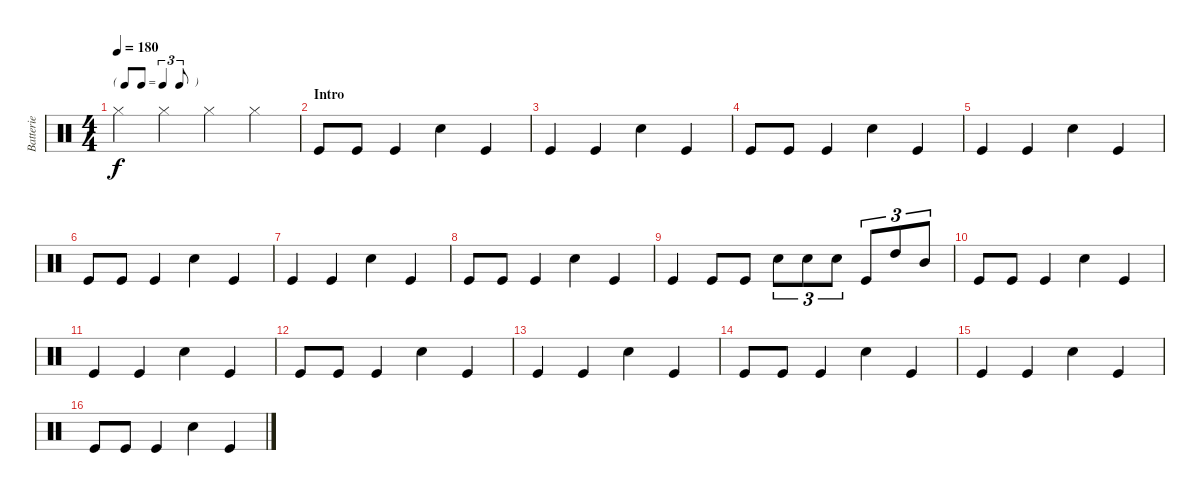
\track ("Batterie" "Batterie") {instrument percussion}
\staff {score}
\articulation defaults
\ts (4 4)
\tf triplet8th
\tempo 180
\clef neutral
\ks c "Hi-Hat (closed)".4{dy f} "Hi-Hat (closed)".4 "Hi-Hat (closed)".4 "Hi-Hat (closed)".4
|
\section ("" "Intro")
"Kick (hit)".8 "Kick (hit)".8 "Kick (hit)".4 "Electric Snare (hit)".4 "Kick (hit)".4 |
"Kick (hit)".4 "Kick (hit)".4 "Electric Snare (hit)".4 "Kick (hit)".4 |
"Kick (hit)".8 "Kick (hit)".8 "Kick (hit)".4 "Electric Snare (hit)".4 "Kick (hit)".4 |
"Kick (hit)".4 "Kick (hit)".4 "Electric Snare (hit)".4 "Kick (hit)".4 |
"Kick (hit)".8 "Kick (hit)".8 "Kick (hit)".4 "Electric Snare (hit)".4 "Kick (hit)".4 |
"Kick (hit)".4 "Kick (hit)".4 "Electric Snare (hit)".4 "Kick (hit)".4 |
"Kick (hit)".8 "Kick (hit)".8 "Kick (hit)".4 "Electric Snare (hit)".4 "Kick (hit)".4 |
"Kick (hit)".4 "Kick (hit)".8 "Kick (hit)".8 "Electric Snare (hit)".8{tu (3 2)} "Electric Snare (hit)".8{tu (3 2)} "Electric Snare (hit)".8{tu (3 2)} "Kick (hit)".8{tu (3 2)} "High Tom (hit)".8{tu (3 2)} "Mid Tom (hit)".8{tu (3 2)} |
"Kick (hit)".8 "Kick (hit)".8 "Kick (hit)".4 "Electric Snare (hit)".4 "Kick (hit)".4 |
"Kick (hit)".4 "Kick (hit)".4 "Electric Snare (hit)".4 "Kick (hit)".4 |
"Kick (hit)".8 "Kick (hit)".8 "Kick (hit)".4 "Electric Snare (hit)".4 "Kick (hit)".4 |
"Kick (hit)".4 "Kick (hit)".4 "Electric Snare (hit)".4 "Kick (hit)".4 |
"Kick (hit)".8 "Kick (hit)".8 "Kick (hit)".4 "Electric Snare (hit)".4 "Kick (hit)".4 |
"Kick (hit)".4 "Kick (hit)".4 "Electric Snare (hit)".4 "Kick (hit)".4 |
"Kick (hit)".8 "Kick (hit)".8 "Kick (hit)".4 "Electric Snare (hit)".4 "Kick (hit)".4
